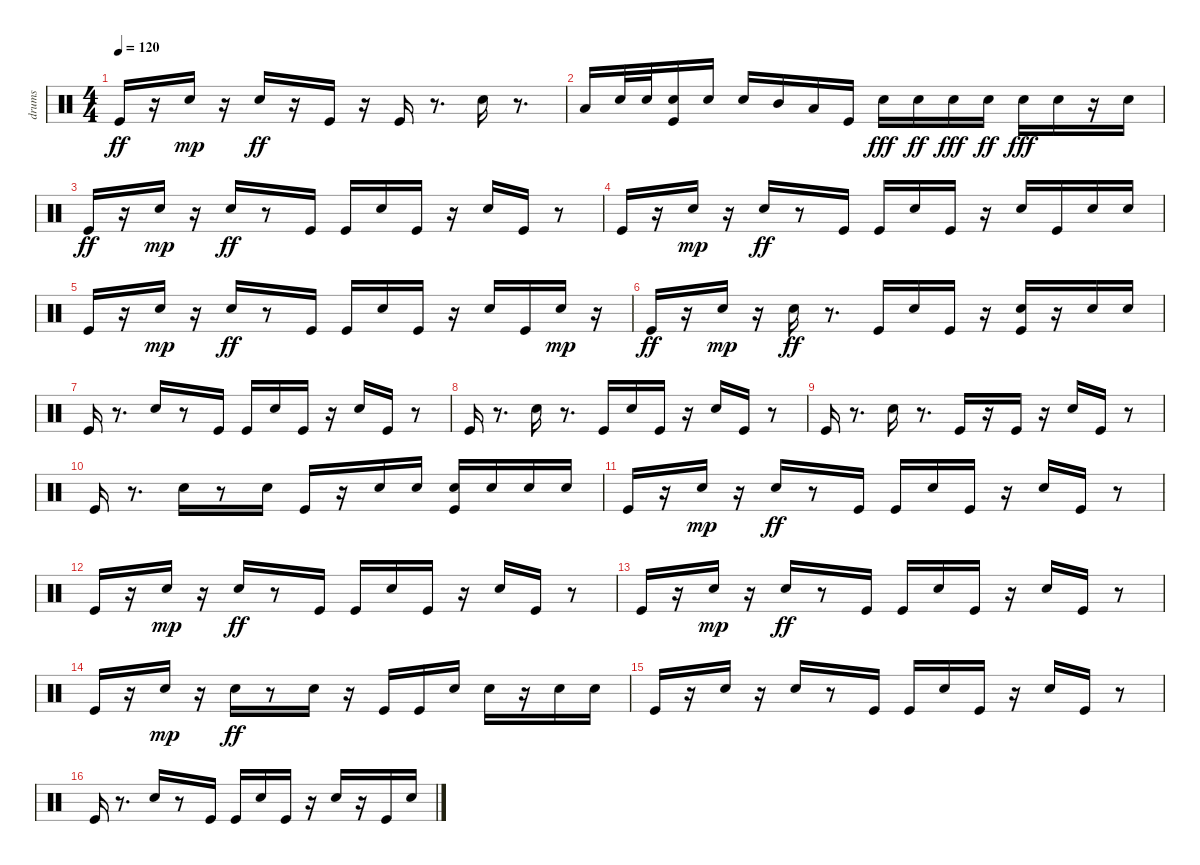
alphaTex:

\track ("drums" "drums") {instrument percussion}
\staff {score}
\articulation defaults
\ts (4 4)
\tempo 120
\clef neutral
\ks c "Kick (hit)".16{dy ff}
r.16 "Electric Snare (hit)".16{dy mp} r.16 "Electric Snare (hit)".16{dy ff} r.16 "Kick (hit)".16 r.16 "Kick (hit)".16 r.8{d} "Electric Snare (hit)".16 r.8{d} |
"Low Tom (hit)".16 "Electric Snare (hit)".32 "Electric Snare (hit)".32 ("Kick (hit)" "Electric Snare (hit)").16 "Electric Snare (hit)".16 "Electric Snare (hit)".16 "Mid Tom (hit)".16 "Low Tom (hit)".16 "Kick (hit)".16 "Electric Snare (hit)".16{dy fff} "Electric Snare (hit)".16{dy ff} "Electric Snare (hit)".16{dy fff} "Electric Snare (hit)".16{dy ff} "Electric Snare (hit)".16{dy fff} "Electric Snare (hit)".16 r.16 "Electric Snare (hit)".16 |
"Kick (hit)".16{dy ff} r.16 "Electric Snare (hit)".16{dy mp} r.16 "Electric Snare (hit)".16{dy ff} r.8 "Kick (hit)".16 "Kick (hit)".16 "Electric Snare (hit)".16 "Kick (hit)".16 r.16 "Electric Snare (hit)".16 "Kick (hit)".16 r.8 |
"Kick (hit)".16 r.16 "Electric Snare (hit)".16{dy mp} r.16 "Electric Snare (hit)".16{dy ff} r.8 "Kick (hit)".16 "Kick (hit)".16 "Electric Snare (hit)".16 "Kick (hit)".16 r.16 "Electric Snare (hit)".16 "Kick (hit)".16 "Electric Snare (hit)".16 "Electric Snare (hit)".16 |
"Kick (hit)".16 r.16 "Electric Snare (hit)".16{dy mp} r.16 "Electric Snare (hit)".16{dy ff} r.8 "Kick (hit)".16 "Kick (hit)".16 "Electric Snare (hit)".16 "Kick (hit)".16 r.16 "Electric Snare (hit)".16 "Kick (hit)".16 "Electric Snare (hit)".16{dy mp} r.16 |
"Kick (hit)".16{dy ff} r.16 "Electric Snare (hit)".16{dy mp} r.16 "Electric Snare (hit)".16{dy ff} r.8{d} "Kick (hit)".16 "Electric Snare (hit)".16 "Kick (hit)".16 r.16 ("Kick (hit)" "Electric Snare (hit)").16 r.16 "Electric Snare (hit)".16 "Electric Snare (hit)".16 |
"Kick (hit)".16 r.8{d} "Electric Snare (hit)".16 r.8 "Kick (hit)".16 "Kick (hit)".16 "Electric Snare (hit)".16 "Kick (hit)".16 r.16 "Electric Snare (hit)".16 "Kick (hit)".16 r.8 |
"Kick (hit)".16 r.8{d} "Electric Snare (hit)".16 r.8{d} "Kick (hit)".16 "Electric Snare (hit)".16 "Kick (hit)".16 r.16 "Electric Snare (hit)".16 "Kick (hit)".16 r.8 |
"Kick (hit)".16 r.8{d} "Electric Snare (hit)".16 r.8{d} "Kick (hit)".16 r.16 "Kick (hit)".16 r.16 "Electric Snare (hit)".16 "Kick (hit)".16 r.8 |
"Kick (hit)".16 r.8{d} "Electric Snare (hit)".16 r.8 "Electric Snare (hit)".16 "Kick (hit)".16 r.16 "Electric Snare (hit)".16 "Electric Snare (hit)".16 ("Kick (hit)" "Electric Snare (hit)").16 "Electric Snare (hit)".16 "Electric Snare (hit)".16 "Electric Snare (hit)".16 |
"Kick (hit)".16 r.16 "Electric Snare (hit)".16{dy mp} r.16 "Electric Snare (hit)".16{dy ff} r.8 "Kick (hit)".16 "Kick (hit)".16 "Electric Snare (hit)".16 "Kick (hit)".16 r.16 "Electric Snare (hit)".16 "Kick (hit)".16 r.8 |
"Kick (hit)".16 r.16 "Electric Snare (hit)".16{dy mp} r.16 "Electric Snare (hit)".16{dy ff} r.8 "Kick (hit)".16 "Kick (hit)".16 "Electric Snare (hit)".16 "Kick (hit)".16 r.16 "Electric Snare (hit)".16 "Kick (hit)".16 r.8 |
"Kick (hit)".16 r.16 "Electric Snare (hit)".16{dy mp} r.16 "Electric Snare (hit)".16{dy ff} r.8 "Kick (hit)".16 "Kick (hit)".16 "Electric Snare (hit)".16 "Kick (hit)".16 r.16 "Electric Snare (hit)".16 "Kick (hit)".16 r.8 |
"Kick (hit)".16 r.16 "Electric Snare (hit)".16{dy mp} r.16 "Electric Snare (hit)".16{dy ff} r.8 "Electric Snare (hit)".16 r.16 "Kick (hit)".16 "Kick (hit)".16 "Electric Snare (hit)".16 "Electric Snare (hit)".16 r.16 "Electric Snare (hit)".16 "Electric Snare (hit)".16 |
"Kick (hit)".16 r.16 "Electric Snare (hit)".16 r.16 "Electric Snare (hit)".16 r.8 "Kick (hit)".16 "Kick (hit)".16 "Electric Snare (hit)".16 "Kick (hit)".16 r.16 "Electric Snare (hit)".16 "Kick (hit)".16 r.8 |
"Kick (hit)".16 r.8{d} "Electric Snare (hit)".16 r.8 "Kick (hit)".16 "Kick (hit)".16 "Electric Snare (hit)".16 "Kick (hit)".16 r.16 "Electric Snare (hit)".16 r.16 "Kick (hit)".16 "Electric Snare (hit)".16
